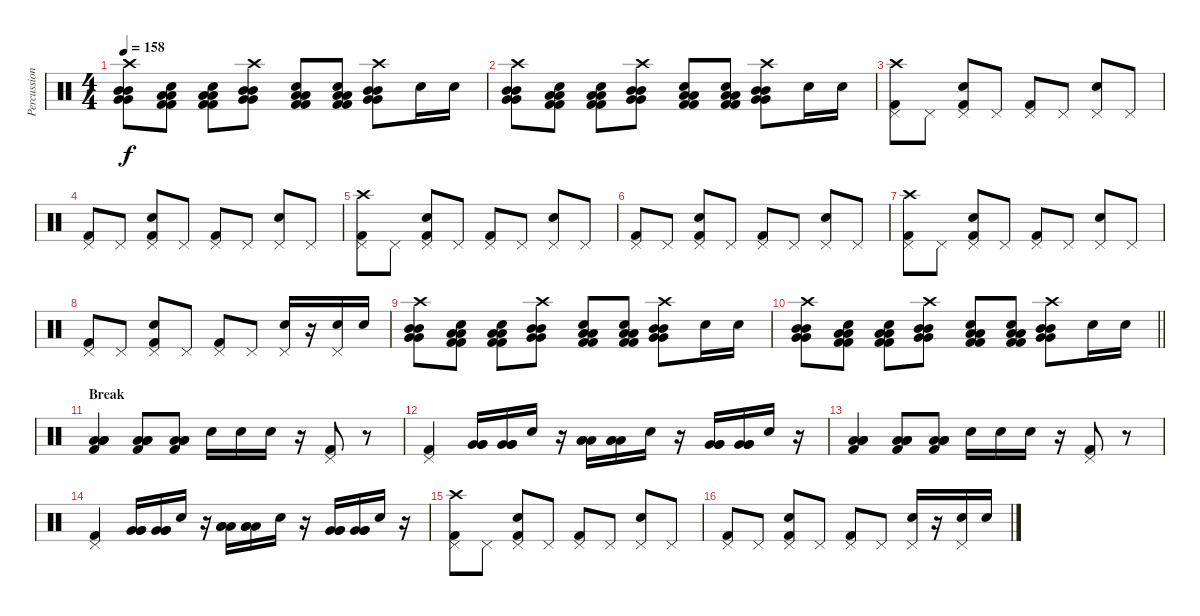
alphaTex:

\track ("Percussion" "Percussion") {instrument percussion}
\staff {score}
\articulation defaults
\ts (4 4)
\tempo 158
\clef neutral
\ks c
("Crash high (hit)" "Very Low Tom (hit)" "Very Low Tom (hit)" "Mid Tom (hit)" "Mid Tom (hit)").8{dy f} ("Kick (hit) 2" "Low Floor Tom (hit)" "Low Floor Tom (hit)" "Electric Snare (hit)" "Kick (hit) 2").8 ("Kick (hit) 2" "Low Floor Tom (hit)" "Low Floor Tom (hit)" "Electric Snare (hit)" "Kick (hit) 2").8 ("Crash high (hit)" "Very Low Tom (hit)" "Very Low Tom (hit)" "Mid Tom (hit)" "Mid Tom (hit)").8 ("Kick (hit) 2" "Low Floor Tom (hit)" "Low Floor Tom (hit)" "Electric Snare (hit)" "Kick (hit) 2").8 ("Kick (hit) 2" "Low Floor Tom (hit)" "Low Floor Tom (hit)" "Electric Snare (hit)" "Kick (hit) 2").8 ("Crash high (hit)" "Very Low Tom (hit)" "Very Low Tom (hit)" "Mid Tom (hit)" "Mid Tom (hit)").8 "Electric Snare (hit)".16 "Electric Snare (hit)".16 |
("Crash high (hit)" "Very Low Tom (hit)" "Very Low Tom (hit)" "Mid Tom (hit)" "Mid Tom (hit)").8 ("Kick (hit) 2" "Low Floor Tom (hit)" "Low Floor Tom (hit)" "Electric Snare (hit)" "Kick (hit) 2").8 ("Kick (hit) 2" "Low Floor Tom (hit)" "Low Floor Tom (hit)" "Electric Snare (hit)" "Kick (hit) 2").8 ("Crash high (hit)" "Very Low Tom (hit)" "Very Low Tom (hit)" "Mid Tom (hit)" "Mid Tom (hit)").8 ("Kick (hit) 2" "Low Floor Tom (hit)" "Low Floor Tom (hit)" "Electric Snare (hit)" "Kick (hit) 2").8 ("Kick (hit) 2" "Low Floor Tom (hit)" "Low Floor Tom (hit)" "Electric Snare (hit)" "Kick (hit) 2").8 ("Crash high (hit)" "Very Low Tom (hit)" "Very Low Tom (hit)" "Mid Tom (hit)" "Mid Tom (hit)").8 "Electric Snare (hit)".16 "Electric Snare (hit)".16 |
("Crash high (hit)" "Pedal Hi-Hat (hit)" "Kick (hit) 2").8 "Pedal Hi-Hat (hit)".8 ("Pedal Hi-Hat (hit)" "Electric Snare (hit)" "Kick (hit) 2").8 "Pedal Hi-Hat (hit)".8 ("Pedal Hi-Hat (hit)" "Kick (hit) 2").8 "Pedal Hi-Hat (hit)".8 ("Pedal Hi-Hat (hit)" "Electric Snare (hit)").8 "Pedal Hi-Hat (hit)".8 |
("Pedal Hi-Hat (hit)" "Kick (hit) 2").8 "Pedal Hi-Hat (hit)".8 ("Pedal Hi-Hat (hit)" "Electric Snare (hit)" "Kick (hit) 2").8 "Pedal Hi-Hat (hit)".8 ("Pedal Hi-Hat (hit)" "Kick (hit) 2").8 "Pedal Hi-Hat (hit)".8 ("Pedal Hi-Hat (hit)" "Electric Snare (hit)").8 "Pedal Hi-Hat (hit)".8 |
("Crash high (hit)" "Pedal Hi-Hat (hit)" "Kick (hit) 2").8 "Pedal Hi-Hat (hit)".8 ("Pedal Hi-Hat (hit)" "Electric Snare (hit)" "Kick (hit) 2").8 "Pedal Hi-Hat (hit)".8 ("Pedal Hi-Hat (hit)" "Kick (hit) 2").8 "Pedal Hi-Hat (hit)".8 ("Pedal Hi-Hat (hit)" "Electric Snare (hit)").8 "Pedal Hi-Hat (hit)".8 |
("Pedal Hi-Hat (hit)" "Kick (hit) 2").8 "Pedal Hi-Hat (hit)".8 ("Pedal Hi-Hat (hit)" "Electric Snare (hit)" "Kick (hit) 2").8 "Pedal Hi-Hat (hit)".8 ("Pedal Hi-Hat (hit)" "Kick (hit) 2").8 "Pedal Hi-Hat (hit)".8 ("Pedal Hi-Hat (hit)" "Electric Snare (hit)").8 "Pedal Hi-Hat (hit)".8 |
("Crash high (hit)" "Pedal Hi-Hat (hit)" "Kick (hit) 2").8 "Pedal Hi-Hat (hit)".8 ("Pedal Hi-Hat (hit)" "Electric Snare (hit)" "Kick (hit) 2").8 "Pedal Hi-Hat (hit)".8 ("Pedal Hi-Hat (hit)" "Kick (hit) 2").8 "Pedal Hi-Hat (hit)".8 ("Pedal Hi-Hat (hit)" "Electric Snare (hit)").8 "Pedal Hi-Hat (hit)".8 |
("Pedal Hi-Hat (hit)" "Kick (hit) 2").8 "Pedal Hi-Hat (hit)".8 ("Pedal Hi-Hat (hit)" "Electric Snare (hit)" "Kick (hit) 2").8 "Pedal Hi-Hat (hit)".8 ("Pedal Hi-Hat (hit)" "Kick (hit) 2").8 "Pedal Hi-Hat (hit)".8 ("Pedal Hi-Hat (hit)" "Electric Snare (hit)").16 r.16 ("Pedal Hi-Hat (hit)" "Electric Snare (hit)").16 "Electric Snare (hit)".16 |
("Crash high (hit)" "Very Low Tom (hit)" "Very Low Tom (hit)" "Mid Tom (hit)" "Mid Tom (hit)").8 ("Kick (hit) 2" "Low Floor Tom (hit)" "Low Floor Tom (hit)" "Electric Snare (hit)" "Kick (hit) 2").8 ("Kick (hit) 2" "Low Floor Tom (hit)" "Low Floor Tom (hit)" "Electric Snare (hit)" "Kick (hit) 2").8 ("Crash high (hit)" "Very Low Tom (hit)" "Very Low Tom (hit)" "Mid Tom (hit)" "Mid Tom (hit)").8 ("Kick (hit) 2" "Low Floor Tom (hit)" "Low Floor Tom (hit)" "Electric Snare (hit)" "Kick (hit) 2").8 ("Kick (hit) 2" "Low Floor Tom (hit)" "Low Floor Tom (hit)" "Electric Snare (hit)" "Kick (hit) 2").8 ("Crash high (hit)" "Very Low Tom (hit)" "Very Low Tom (hit)" "Mid Tom (hit)" "Mid Tom (hit)").8 "Electric Snare (hit)".16 "Electric Snare (hit)".16 |
\barLineRight lightlight
("Crash high (hit)" "Very Low Tom (hit)" "Very Low Tom (hit)" "Mid Tom (hit)" "Mid Tom (hit)").8 ("Kick (hit) 2" "Low Floor Tom (hit)" "Low Floor Tom (hit)" "Electric Snare (hit)" "Kick (hit) 2").8 ("Kick (hit) 2" "Low Floor Tom (hit)" "Low Floor Tom (hit)" "Electric Snare (hit)" "Kick (hit) 2").8 ("Crash high (hit)" "Very Low Tom (hit)" "Very Low Tom (hit)" "Mid Tom (hit)" "Mid Tom (hit)").8 ("Kick (hit) 2" "Low Floor Tom (hit)" "Low Floor Tom (hit)" "Electric Snare (hit)" "Kick (hit) 2").8 ("Kick (hit) 2" "Low Floor Tom (hit)" "Low Floor Tom (hit)" "Electric Snare (hit)" "Kick (hit) 2").8 ("Crash high (hit)" "Very Low Tom (hit)" "Very Low Tom (hit)" "Mid Tom (hit)" "Mid Tom (hit)").8 "Electric Snare (hit)".16 "Electric Snare (hit)".16 |
\section ("" "Break")
("Low Floor Tom (hit)" "Low Floor Tom (hit)" "Low Floor Tom (hit)" "Kick (hit) 2").4 ("Low Floor Tom (hit)" "Low Floor Tom (hit)" "Low Floor Tom (hit)" "Kick (hit) 2").8 ("Low Floor Tom (hit)" "Low Floor Tom (hit)" "Low Floor Tom (hit)" "Kick (hit) 2").8 "Electric Snare (hit)".16 "Electric Snare (hit)".16 "Electric Snare (hit)".16 r.16 ("Pedal Hi-Hat (hit)" "Kick (hit) 2").8 r.8 |
("Pedal Hi-Hat (hit)" "Kick (hit) 2").4 ("Very Low Tom (hit)" "Very Low Tom (hit)" "Very Low Tom (hit)").16 ("Very Low Tom (hit)" "Very Low Tom (hit)" "Very Low Tom (hit)").16 "Electric Snare (hit)".16 r.16 ("Low Tom (hit)" "Low Tom (hit)" "Low Tom (hit)").16 ("Low Tom (hit)" "Low Tom (hit)" "Low Tom (hit)").16 "Electric Snare (hit)".16 r.16 ("Very Low Tom (hit)" "Very Low Tom (hit)" "Very Low Tom (hit)").16 ("Very Low Tom (hit)" "Very Low Tom (hit)" "Very Low Tom (hit)").16 "Electric Snare (hit)".16 r.16 |
("Low Floor Tom (hit)" "Low Floor Tom (hit)" "Low Floor Tom (hit)" "Kick (hit) 2").4 ("Low Floor Tom (hit)" "Low Floor Tom (hit)" "Low Floor Tom (hit)" "Kick (hit) 2").8 ("Low Floor Tom (hit)" "Low Floor Tom (hit)" "Low Floor Tom (hit)" "Kick (hit) 2").8 "Electric Snare (hit)".16 "Electric Snare (hit)".16 "Electric Snare (hit)".16 r.16 ("Pedal Hi-Hat (hit)" "Kick (hit) 2").8 r.8 |
("Pedal Hi-Hat (hit)" "Kick (hit) 2").4 ("Very Low Tom (hit)" "Very Low Tom (hit)" "Very Low Tom (hit)").16 ("Very Low Tom (hit)" "Very Low Tom (hit)" "Very Low Tom (hit)").16 "Electric Snare (hit)".16 r.16 ("Low Tom (hit)" "Low Tom (hit)" "Low Tom (hit)").16 ("Low Tom (hit)" "Low Tom (hit)" "Low Tom (hit)").16 "Electric Snare (hit)".16 r.16 ("Very Low Tom (hit)" "Very Low Tom (hit)" "Very Low Tom (hit)").16 ("Very Low Tom (hit)" "Very Low Tom (hit)" "Very Low Tom (hit)").16 "Electric Snare (hit)".16 r.16 |
("Crash high (hit)" "Pedal Hi-Hat (hit)" "Kick (hit) 2").8 "Pedal Hi-Hat (hit)".8 ("Pedal Hi-Hat (hit)" "Electric Snare (hit)" "Kick (hit) 2").8 "Pedal Hi-Hat (hit)".8 ("Pedal Hi-Hat (hit)" "Kick (hit) 2").8 "Pedal Hi-Hat (hit)".8 ("Pedal Hi-Hat (hit)" "Electric Snare (hit)").8 "Pedal Hi-Hat (hit)".8 |
("Pedal Hi-Hat (hit)" "Kick (hit) 2").8 "Pedal Hi-Hat (hit)".8 ("Pedal Hi-Hat (hit)" "Electric Snare (hit)" "Kick (hit) 2").8 "Pedal Hi-Hat (hit)".8 ("Pedal Hi-Hat (hit)" "Kick (hit) 2").8 "Pedal Hi-Hat (hit)".8 ("Pedal Hi-Hat (hit)" "Electric Snare (hit)").16 r.16 ("Pedal Hi-Hat (hit)" "Electric Snare (hit)").16 "Electric Snare (hit)".16
